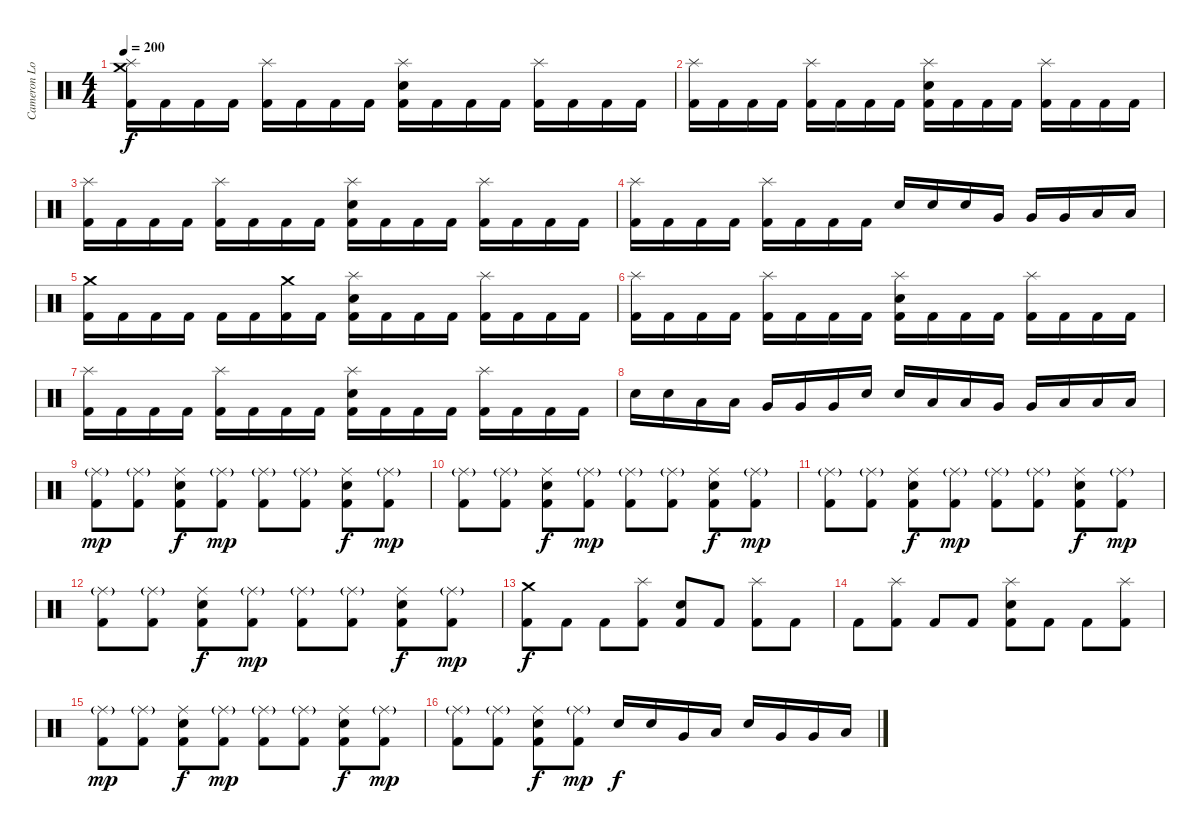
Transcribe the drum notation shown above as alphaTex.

\track ("Cameron Losch - drums" "Cameron Lo") {instrument percussion}
\staff {score}
\articulation defaults
\ts (4 4)
\tempo 200
\clef neutral
\ks c
("Crash medium (hit)" "Splash (hit)" "Kick (hit) 2").16{dy f} "Kick (hit) 2".16 "Kick (hit) 2".16 "Kick (hit) 2".16 ("Splash (hit)" "Kick (hit) 2").16 "Kick (hit) 2".16 "Kick (hit) 2".16 "Kick (hit) 2".16 ("Electric Snare (hit)" "Splash (hit)" "Kick (hit) 2").16 "Kick (hit) 2".16 "Kick (hit) 2".16 "Kick (hit) 2".16 ("Splash (hit)" "Kick (hit) 2").16 "Kick (hit) 2".16 "Kick (hit) 2".16 "Kick (hit) 2".16 |
("Splash (hit)" "Kick (hit) 2").16 "Kick (hit) 2".16 "Kick (hit) 2".16 "Kick (hit) 2".16 ("Splash (hit)" "Kick (hit) 2").16 "Kick (hit) 2".16 "Kick (hit) 2".16 "Kick (hit) 2".16 ("Electric Snare (hit)" "Splash (hit)" "Kick (hit) 2").16 "Kick (hit) 2".16 "Kick (hit) 2".16 "Kick (hit) 2".16 ("Splash (hit)" "Kick (hit) 2").16 "Kick (hit) 2".16 "Kick (hit) 2".16 "Kick (hit) 2".16 |
("Splash (hit)" "Kick (hit) 2").16 "Kick (hit) 2".16 "Kick (hit) 2".16 "Kick (hit) 2".16 ("Splash (hit)" "Kick (hit) 2").16 "Kick (hit) 2".16 "Kick (hit) 2".16 "Kick (hit) 2".16 ("Electric Snare (hit)" "Splash (hit)" "Kick (hit) 2").16 "Kick (hit) 2".16 "Kick (hit) 2".16 "Kick (hit) 2".16 ("Splash (hit)" "Kick (hit) 2").16 "Kick (hit) 2".16 "Kick (hit) 2".16 "Kick (hit) 2".16 |
("Splash (hit)" "Kick (hit) 2").16 "Kick (hit) 2".16 "Kick (hit) 2".16 "Kick (hit) 2".16 ("Splash (hit)" "Kick (hit) 2").16 "Kick (hit) 2".16 "Kick (hit) 2".16 "Kick (hit) 2".16 "Electric Snare (hit)".16 "Electric Snare (hit)".16 "Electric Snare (hit)".16 "Very Low Tom (hit)".16 "Very Low Tom (hit)".16 "Very Low Tom (hit)".16 "Low Floor Tom (hit)".16 "Low Floor Tom (hit)".16 |
("Crash medium (hit)" "Kick (hit) 2").16 "Kick (hit) 2".16 "Kick (hit) 2".16 "Kick (hit) 2".16 "Kick (hit) 2".16 "Kick (hit) 2".16 ("Crash medium (hit)" "Kick (hit) 2").16 "Kick (hit) 2".16 ("Electric Snare (hit)" "Splash (hit)" "Kick (hit) 2").16 "Kick (hit) 2".16 "Kick (hit) 2".16 "Kick (hit) 2".16 ("Splash (hit)" "Kick (hit) 2").16 "Kick (hit) 2".16 "Kick (hit) 2".16 "Kick (hit) 2".16 |
("Splash (hit)" "Kick (hit) 2").16 "Kick (hit) 2".16 "Kick (hit) 2".16 "Kick (hit) 2".16 ("Splash (hit)" "Kick (hit) 2").16 "Kick (hit) 2".16 "Kick (hit) 2".16 "Kick (hit) 2".16 ("Electric Snare (hit)" "Splash (hit)" "Kick (hit) 2").16 "Kick (hit) 2".16 "Kick (hit) 2".16 "Kick (hit) 2".16 ("Splash (hit)" "Kick (hit) 2").16 "Kick (hit) 2".16 "Kick (hit) 2".16 "Kick (hit) 2".16 |
("Splash (hit)" "Kick (hit) 2").16 "Kick (hit) 2".16 "Kick (hit) 2".16 "Kick (hit) 2".16 ("Splash (hit)" "Kick (hit) 2").16 "Kick (hit) 2".16 "Kick (hit) 2".16 "Kick (hit) 2".16 ("Electric Snare (hit)" "Splash (hit)" "Kick (hit) 2").16 "Kick (hit) 2".16 "Kick (hit) 2".16 "Kick (hit) 2".16 ("Splash (hit)" "Kick (hit) 2").16 "Kick (hit) 2".16 "Kick (hit) 2".16 "Kick (hit) 2".16 |
"Electric Snare (hit)".16 "Electric Snare (hit)".16 "Low Tom (hit)".16 "Low Tom (hit)".16 "Very Low Tom (hit)".16 "Very Low Tom (hit)".16 "Very Low Tom (hit)".16 "Electric Snare (hit)".16 "Electric Snare (hit)".16 "Low Tom (hit)".16 "Low Tom (hit)".16 "Very Low Tom (hit)".16 "Very Low Tom (hit)".16 "Low Floor Tom (hit)".16 "Low Floor Tom (hit)".16 "Low Floor Tom (hit)".16 |
("Ride (middle)"{g} "Kick (hit) 2").8{dy mp} ("Ride (middle)"{g} "Kick (hit) 2").8 ("Ride (middle)" "Electric Snare (hit)" "Kick (hit) 2").8{dy f} ("Ride (middle)"{g} "Kick (hit) 2").8{dy mp} ("Ride (middle)"{g} "Kick (hit) 2").8 ("Ride (middle)"{g} "Kick (hit) 2").8 ("Ride (middle)" "Electric Snare (hit)" "Kick (hit) 2").8{dy f} ("Ride (middle)"{g} "Kick (hit) 2").8{dy mp} |
("Ride (middle)"{g} "Kick (hit) 2").8 ("Ride (middle)"{g} "Kick (hit) 2").8 ("Ride (middle)" "Electric Snare (hit)" "Kick (hit) 2").8{dy f} ("Ride (middle)"{g} "Kick (hit) 2").8{dy mp} ("Ride (middle)"{g} "Kick (hit) 2").8 ("Ride (middle)"{g} "Kick (hit) 2").8 ("Ride (middle)" "Electric Snare (hit)" "Kick (hit) 2").8{dy f} ("Ride (middle)"{g} "Kick (hit) 2").8{dy mp} |
("Ride (middle)"{g} "Kick (hit) 2").8 ("Ride (middle)"{g} "Kick (hit) 2").8 ("Ride (middle)" "Electric Snare (hit)" "Kick (hit) 2").8{dy f} ("Ride (middle)"{g} "Kick (hit) 2").8{dy mp} ("Ride (middle)"{g} "Kick (hit) 2").8 ("Ride (middle)"{g} "Kick (hit) 2").8 ("Ride (middle)" "Electric Snare (hit)" "Kick (hit) 2").8{dy f} ("Ride (middle)"{g} "Kick (hit) 2").8{dy mp} |
("Ride (middle)"{g} "Kick (hit) 2").8 ("Ride (middle)"{g} "Kick (hit) 2").8 ("Ride (middle)" "Electric Snare (hit)" "Kick (hit) 2").8{dy f} ("Ride (middle)"{g} "Kick (hit) 2").8{dy mp} ("Ride (middle)"{g} "Kick (hit) 2").8 ("Ride (middle)"{g} "Kick (hit) 2").8 ("Ride (middle)" "Electric Snare (hit)" "Kick (hit) 2").8{dy f} ("Ride (middle)"{g} "Kick (hit) 2").8{dy mp} |
("Crash medium (hit)" "Kick (hit) 2").8{dy f} "Kick (hit) 2".8 "Kick (hit) 2".8 ("Splash (hit)" "Kick (hit) 2").8 ("Electric Snare (hit)" "Kick (hit) 2").8 "Kick (hit) 2".8 ("Splash (hit)" "Kick (hit) 2").8 "Kick (hit) 2".8 |
"Kick (hit) 2".8 ("Splash (hit)" "Kick (hit) 2").8 "Kick (hit) 2".8 "Kick (hit) 2".8 ("Splash (hit)" "Electric Snare (hit)" "Kick (hit) 2").8 "Kick (hit) 2".8 "Kick (hit) 2".8 ("Splash (hit)" "Kick (hit) 2").8 |
("Ride (middle)"{g} "Kick (hit) 2").8{dy mp} ("Ride (middle)"{g} "Kick (hit) 2").8 ("Ride (middle)" "Electric Snare (hit)" "Kick (hit) 2").8{dy f} ("Ride (middle)"{g} "Kick (hit) 2").8{dy mp} ("Ride (middle)"{g} "Kick (hit) 2").8 ("Ride (middle)"{g} "Kick (hit) 2").8 ("Ride (middle)" "Electric Snare (hit)" "Kick (hit) 2").8{dy f} ("Ride (middle)"{g} "Kick (hit) 2").8{dy mp} |
("Ride (middle)"{g} "Kick (hit) 2").8 ("Ride (middle)"{g} "Kick (hit) 2").8 ("Ride (middle)" "Electric Snare (hit)" "Kick (hit) 2").8{dy f} ("Ride (middle)"{g} "Kick (hit) 2").8{dy mp} "Electric Snare (hit)".16{dy f} "Electric Snare (hit)".16 "Very Low Tom (hit)".16 "Low Floor Tom (hit)".16 "Electric Snare (hit)".16 "Very Low Tom (hit)".16 "Very Low Tom (hit)".16 "Low Floor Tom (hit)".16
